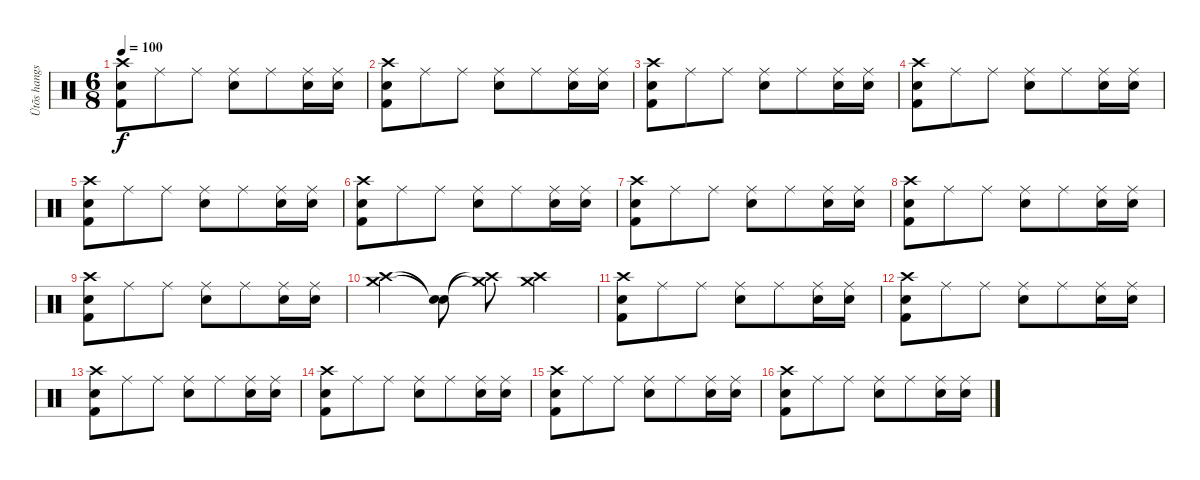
\track ("Ütõs hangszer" "Ütõs hangs") {instrument percussion}
\staff {score}
\articulation defaults
\ts (6 8)
\tempo 100
\clef neutral
\ks c
("Crash high (hit)" "Snare (hit) 2" "Kick (hit) 2").8{dy f} "Ride (middle)".8 "Ride (middle)".8 ("Ride (middle)" "Snare (hit) 2").8 "Ride (middle)".8 ("Ride (middle)" "Snare (hit) 2").16 ("Ride (middle)" "Snare (hit) 2").16 |
("Crash high (hit)" "Snare (hit) 2" "Kick (hit) 2").8 "Ride (middle)".8 "Ride (middle)".8 ("Ride (middle)" "Snare (hit) 2").8 "Ride (middle)".8 ("Ride (middle)" "Snare (hit) 2").16 ("Ride (middle)" "Snare (hit) 2").16 |
("Crash high (hit)" "Snare (hit) 2" "Kick (hit) 2").8 "Ride (middle)".8 "Ride (middle)".8 ("Ride (middle)" "Snare (hit) 2").8 "Ride (middle)".8 ("Ride (middle)" "Snare (hit) 2").16 ("Ride (middle)" "Snare (hit) 2").16 |
("Crash high (hit)" "Snare (hit) 2" "Kick (hit) 2").8 "Ride (middle)".8 "Ride (middle)".8 ("Ride (middle)" "Snare (hit) 2").8 "Ride (middle)".8 ("Ride (middle)" "Snare (hit) 2").16 ("Ride (middle)" "Snare (hit) 2").16 |
("Crash high (hit)" "Snare (hit) 2" "Kick (hit) 2").8 "Ride (middle)".8 "Ride (middle)".8 ("Ride (middle)" "Snare (hit) 2").8 "Ride (middle)".8 ("Ride (middle)" "Snare (hit) 2").16 ("Ride (middle)" "Snare (hit) 2").16 |
("Crash high (hit)" "Snare (hit) 2" "Kick (hit) 2").8 "Ride (middle)".8 "Ride (middle)".8 ("Ride (middle)" "Snare (hit) 2").8 "Ride (middle)".8 ("Ride (middle)" "Snare (hit) 2").16 ("Ride (middle)" "Snare (hit) 2").16 |
("Crash high (hit)" "Snare (hit) 2" "Kick (hit) 2").8 "Ride (middle)".8 "Ride (middle)".8 ("Ride (middle)" "Snare (hit) 2").8 "Ride (middle)".8 ("Ride (middle)" "Snare (hit) 2").16 ("Ride (middle)" "Snare (hit) 2").16 |
("Crash high (hit)" "Snare (hit) 2" "Kick (hit) 2").8 "Ride (middle)".8 "Ride (middle)".8 ("Ride (middle)" "Snare (hit) 2").8 "Ride (middle)".8 ("Ride (middle)" "Snare (hit) 2").16 ("Ride (middle)" "Snare (hit) 2").16 |
("Crash high (hit)" "Snare (hit) 2" "Kick (hit) 2").8 "Ride (middle)".8 "Ride (middle)".8 ("Ride (middle)" "Snare (hit) 2").8 "Ride (middle)".8 ("Ride (middle)" "Snare (hit) 2").16 ("Ride (middle)" "Snare (hit) 2").16 |
("Crash high (hit)" "Crash medium (hit)").4 ("Snare (hit)"{t} "Snare (hit)"{t}).8 ("Crash high (hit)"{t} "Crash medium (hit)"{t}).8 ("Crash high (hit)" "Crash medium (hit)").4 |
("Crash high (hit)" "Snare (hit) 2" "Kick (hit) 2").8 "Ride (middle)".8 "Ride (middle)".8 ("Ride (middle)" "Snare (hit) 2").8 "Ride (middle)".8 ("Ride (middle)" "Snare (hit) 2").16 ("Ride (middle)" "Snare (hit) 2").16 |
("Crash high (hit)" "Snare (hit) 2" "Kick (hit) 2").8 "Ride (middle)".8 "Ride (middle)".8 ("Ride (middle)" "Snare (hit) 2").8 "Ride (middle)".8 ("Ride (middle)" "Snare (hit) 2").16 ("Ride (middle)" "Snare (hit) 2").16 |
("Crash high (hit)" "Snare (hit) 2" "Kick (hit) 2").8 "Ride (middle)".8 "Ride (middle)".8 ("Ride (middle)" "Snare (hit) 2").8 "Ride (middle)".8 ("Ride (middle)" "Snare (hit) 2").16 ("Ride (middle)" "Snare (hit) 2").16 |
("Crash high (hit)" "Snare (hit) 2" "Kick (hit) 2").8 "Ride (middle)".8 "Ride (middle)".8 ("Ride (middle)" "Snare (hit) 2").8 "Ride (middle)".8 ("Ride (middle)" "Snare (hit) 2").16 ("Ride (middle)" "Snare (hit) 2").16 |
("Crash high (hit)" "Snare (hit) 2" "Kick (hit) 2").8 "Ride (middle)".8 "Ride (middle)".8 ("Ride (middle)" "Snare (hit) 2").8 "Ride (middle)".8 ("Ride (middle)" "Snare (hit) 2").16 ("Ride (middle)" "Snare (hit) 2").16 |
("Crash high (hit)" "Snare (hit) 2" "Kick (hit) 2").8 "Ride (middle)".8 "Ride (middle)".8 ("Ride (middle)" "Snare (hit) 2").8 "Ride (middle)".8 ("Ride (middle)" "Snare (hit) 2").16 ("Ride (middle)" "Snare (hit) 2").16
